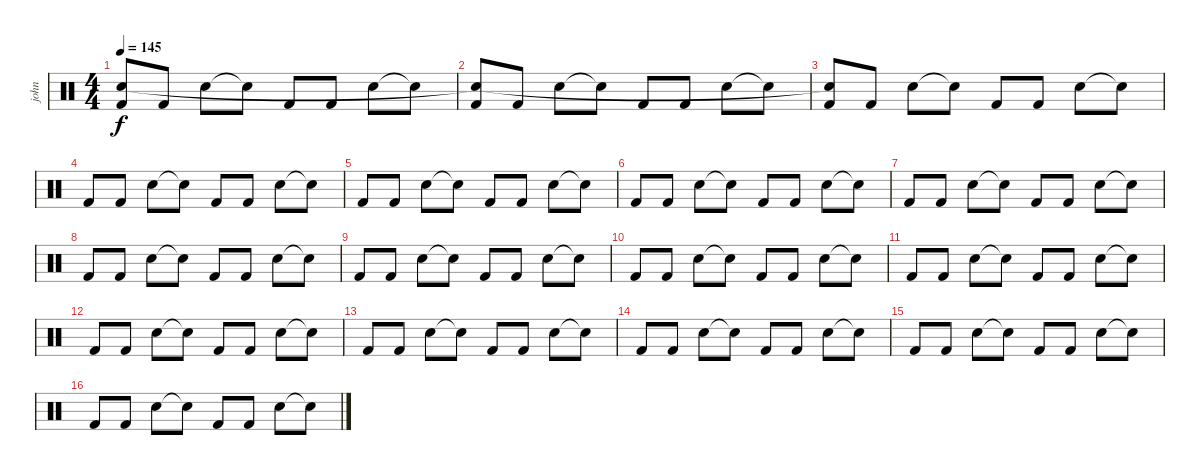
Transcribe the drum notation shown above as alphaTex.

\track ("john" "john") {instrument percussion}
\staff {score}
\articulation defaults
\ts (4 4)
\tempo 145
\clef neutral
\ks c
("Kick (hit) 2" "Snare (hit)"{t}).8{dy f} "Kick (hit) 2".8 "Snare (hit) 2".8 "Snare (hit)"{t}.8 "Kick (hit) 2".8 "Kick (hit) 2".8 "Snare (hit) 2".8 "Snare (hit)"{t}.8 |
("Kick (hit) 2" "Snare (hit)"{t}).8 "Kick (hit) 2".8 "Snare (hit) 2".8 "Snare (hit)"{t}.8 "Kick (hit) 2".8 "Kick (hit) 2".8 "Snare (hit) 2".8 "Snare (hit)"{t}.8 |
("Kick (hit) 2" "Snare (hit)"{t}).8 "Kick (hit) 2".8 "Snare (hit) 2".8 "Snare (hit)"{t}.8 "Kick (hit) 2".8 "Kick (hit) 2".8 "Snare (hit) 2".8 "Snare (hit)"{t}.8 |
"Kick (hit) 2".8 "Kick (hit) 2".8 "Snare (hit) 2".8 "Snare (hit)"{t}.8 "Kick (hit) 2".8 "Kick (hit) 2".8 "Snare (hit) 2".8 "Snare (hit)"{t}.8 |
"Kick (hit) 2".8 "Kick (hit) 2".8 "Snare (hit) 2".8 "Snare (hit)"{t}.8 "Kick (hit) 2".8 "Kick (hit) 2".8 "Snare (hit) 2".8 "Snare (hit)"{t}.8 |
"Kick (hit) 2".8 "Kick (hit) 2".8 "Snare (hit) 2".8 "Snare (hit)"{t}.8 "Kick (hit) 2".8 "Kick (hit) 2".8 "Snare (hit) 2".8 "Snare (hit)"{t}.8 |
"Kick (hit) 2".8 "Kick (hit) 2".8 "Snare (hit) 2".8 "Snare (hit)"{t}.8 "Kick (hit) 2".8 "Kick (hit) 2".8 "Snare (hit) 2".8 "Snare (hit)"{t}.8 |
"Kick (hit) 2".8 "Kick (hit) 2".8 "Snare (hit) 2".8 "Snare (hit)"{t}.8 "Kick (hit) 2".8 "Kick (hit) 2".8 "Snare (hit) 2".8 "Snare (hit)"{t}.8 |
"Kick (hit) 2".8 "Kick (hit) 2".8 "Snare (hit) 2".8 "Snare (hit)"{t}.8 "Kick (hit) 2".8 "Kick (hit) 2".8 "Snare (hit) 2".8 "Snare (hit)"{t}.8 |
"Kick (hit) 2".8 "Kick (hit) 2".8 "Snare (hit) 2".8 "Snare (hit)"{t}.8 "Kick (hit) 2".8 "Kick (hit) 2".8 "Snare (hit) 2".8 "Snare (hit)"{t}.8 |
"Kick (hit) 2".8 "Kick (hit) 2".8 "Snare (hit) 2".8 "Snare (hit)"{t}.8 "Kick (hit) 2".8 "Kick (hit) 2".8 "Snare (hit) 2".8 "Snare (hit)"{t}.8 |
"Kick (hit) 2".8 "Kick (hit) 2".8 "Snare (hit) 2".8 "Snare (hit)"{t}.8 "Kick (hit) 2".8 "Kick (hit) 2".8 "Snare (hit) 2".8 "Snare (hit)"{t}.8 |
"Kick (hit) 2".8 "Kick (hit) 2".8 "Snare (hit) 2".8 "Snare (hit)"{t}.8 "Kick (hit) 2".8 "Kick (hit) 2".8 "Snare (hit) 2".8 "Snare (hit)"{t}.8 |
"Kick (hit) 2".8 "Kick (hit) 2".8 "Snare (hit) 2".8 "Snare (hit)"{t}.8 "Kick (hit) 2".8 "Kick (hit) 2".8 "Snare (hit) 2".8 "Snare (hit)"{t}.8 |
"Kick (hit) 2".8 "Kick (hit) 2".8 "Snare (hit) 2".8 "Snare (hit)"{t}.8 "Kick (hit) 2".8 "Kick (hit) 2".8 "Snare (hit) 2".8 "Snare (hit)"{t}.8 |
"Kick (hit) 2".8 "Kick (hit) 2".8 "Snare (hit) 2".8 "Snare (hit)"{t}.8 "Kick (hit) 2".8 "Kick (hit) 2".8 "Snare (hit) 2".8 "Snare (hit)"{t}.8
